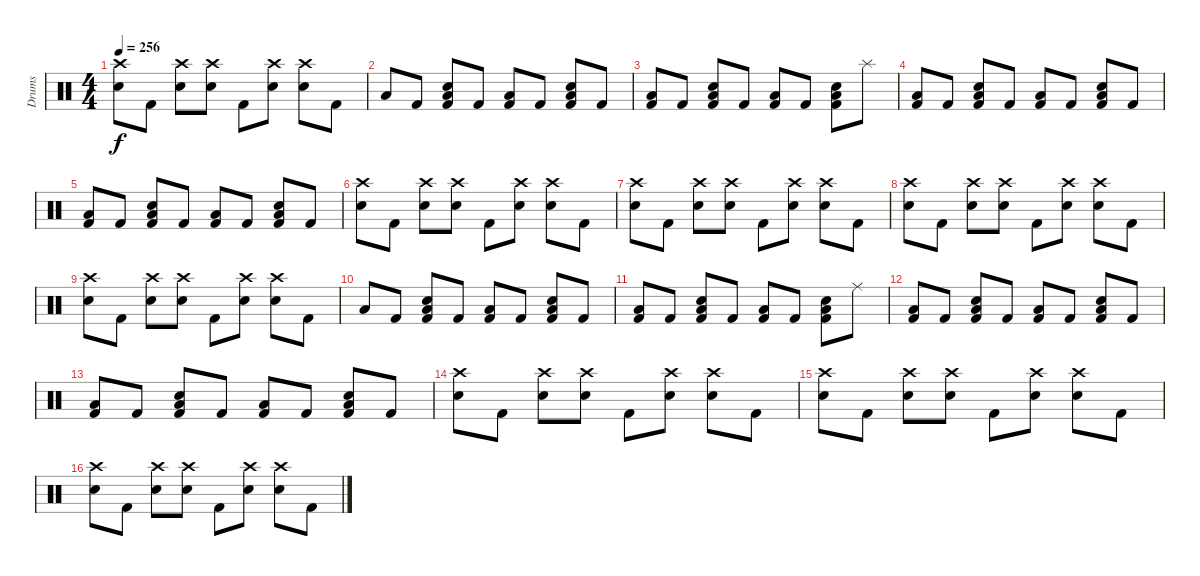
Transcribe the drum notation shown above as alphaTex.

\track ("Drums" "Drums") {instrument percussion}
\staff {score}
\articulation defaults
\ts (4 4)
\tempo 256
\clef neutral
\ks c
("Crash high (hit)" "Electric Snare (hit)").8{dy f} "Kick (hit) 2".8 ("Crash high (hit)" "Electric Snare (hit)").8 ("Crash high (hit)" "Electric Snare (hit)").8 "Kick (hit) 2".8 ("Crash high (hit)" "Electric Snare (hit)").8 ("Crash high (hit)" "Electric Snare (hit)").8 "Kick (hit) 2".8 |
"Low Tom (hit)".8 "Kick (hit) 2".8 ("Low Tom (hit)" "Electric Snare (hit)" "Kick (hit) 2").8 "Kick (hit) 2".8 ("Low Tom (hit)" "Kick (hit) 2").8 "Kick (hit) 2".8 ("Low Tom (hit)" "Electric Snare (hit)" "Kick (hit) 2").8 "Kick (hit) 2".8 |
("Low Tom (hit)" "Kick (hit) 2").8 "Kick (hit) 2".8 ("Low Tom (hit)" "Electric Snare (hit)" "Kick (hit) 2").8 "Kick (hit) 2".8 ("Low Tom (hit)" "Kick (hit) 2").8 "Kick (hit) 2".8 ("Low Tom (hit)" "Electric Snare (hit)" "Kick (hit) 2").8 "Splash (hit)".8 |
("Low Tom (hit)" "Kick (hit) 2").8 "Kick (hit) 2".8 ("Low Tom (hit)" "Electric Snare (hit)" "Kick (hit) 2").8 "Kick (hit) 2".8 ("Low Tom (hit)" "Kick (hit) 2").8 "Kick (hit) 2".8 ("Low Tom (hit)" "Electric Snare (hit)" "Kick (hit) 2").8 "Kick (hit) 2".8 |
("Low Tom (hit)" "Kick (hit) 2").8 "Kick (hit) 2".8 ("Low Tom (hit)" "Electric Snare (hit)" "Kick (hit) 2").8 "Kick (hit) 2".8 ("Low Tom (hit)" "Kick (hit) 2").8 "Kick (hit) 2".8 ("Low Tom (hit)" "Electric Snare (hit)" "Kick (hit) 2").8 "Kick (hit) 2".8 |
("Crash high (hit)" "Electric Snare (hit)").8 "Kick (hit) 2".8 ("Crash high (hit)" "Electric Snare (hit)").8 ("Crash high (hit)" "Electric Snare (hit)").8 "Kick (hit) 2".8 ("Crash high (hit)" "Electric Snare (hit)").8 ("Crash high (hit)" "Electric Snare (hit)").8 "Kick (hit) 2".8 |
("Crash high (hit)" "Electric Snare (hit)").8 "Kick (hit) 2".8 ("Crash high (hit)" "Electric Snare (hit)").8 ("Crash high (hit)" "Electric Snare (hit)").8 "Kick (hit) 2".8 ("Crash high (hit)" "Electric Snare (hit)").8 ("Crash high (hit)" "Electric Snare (hit)").8 "Kick (hit) 2".8 |
("Crash high (hit)" "Electric Snare (hit)").8 "Kick (hit) 2".8 ("Crash high (hit)" "Electric Snare (hit)").8 ("Crash high (hit)" "Electric Snare (hit)").8 "Kick (hit) 2".8 ("Crash high (hit)" "Electric Snare (hit)").8 ("Crash high (hit)" "Electric Snare (hit)").8 "Kick (hit) 2".8 |
("Crash high (hit)" "Electric Snare (hit)").8 "Kick (hit) 2".8 ("Crash high (hit)" "Electric Snare (hit)").8 ("Crash high (hit)" "Electric Snare (hit)").8 "Kick (hit) 2".8 ("Crash high (hit)" "Electric Snare (hit)").8 ("Crash high (hit)" "Electric Snare (hit)").8 "Kick (hit) 2".8 |
"Low Tom (hit)".8 "Kick (hit) 2".8 ("Low Tom (hit)" "Electric Snare (hit)" "Kick (hit) 2").8 "Kick (hit) 2".8 ("Low Tom (hit)" "Kick (hit) 2").8 "Kick (hit) 2".8 ("Low Tom (hit)" "Electric Snare (hit)" "Kick (hit) 2").8 "Kick (hit) 2".8 |
("Low Tom (hit)" "Kick (hit) 2").8 "Kick (hit) 2".8 ("Low Tom (hit)" "Electric Snare (hit)" "Kick (hit) 2").8 "Kick (hit) 2".8 ("Low Tom (hit)" "Kick (hit) 2").8 "Kick (hit) 2".8 ("Low Tom (hit)" "Electric Snare (hit)" "Kick (hit) 2").8 "Ride (middle)".8 |
("Low Tom (hit)" "Kick (hit) 2").8 "Kick (hit) 2".8 ("Low Tom (hit)" "Electric Snare (hit)" "Kick (hit) 2").8 "Kick (hit) 2".8 ("Low Tom (hit)" "Kick (hit) 2").8 "Kick (hit) 2".8 ("Low Tom (hit)" "Electric Snare (hit)" "Kick (hit) 2").8 "Kick (hit) 2".8 |
("Low Tom (hit)" "Kick (hit) 2").8 "Kick (hit) 2".8 ("Low Tom (hit)" "Electric Snare (hit)" "Kick (hit) 2").8 "Kick (hit) 2".8 ("Low Tom (hit)" "Kick (hit) 2").8 "Kick (hit) 2".8 ("Low Tom (hit)" "Electric Snare (hit)" "Kick (hit) 2").8 "Kick (hit) 2".8 |
("Crash high (hit)" "Electric Snare (hit)").8 "Kick (hit) 2".8 ("Crash high (hit)" "Electric Snare (hit)").8 ("Crash high (hit)" "Electric Snare (hit)").8 "Kick (hit) 2".8 ("Crash high (hit)" "Electric Snare (hit)").8 ("Crash high (hit)" "Electric Snare (hit)").8 "Kick (hit) 2".8 |
("Crash high (hit)" "Electric Snare (hit)").8 "Kick (hit) 2".8 ("Crash high (hit)" "Electric Snare (hit)").8 ("Crash high (hit)" "Electric Snare (hit)").8 "Kick (hit) 2".8 ("Crash high (hit)" "Electric Snare (hit)").8 ("Crash high (hit)" "Electric Snare (hit)").8 "Kick (hit) 2".8 |
("Crash high (hit)" "Electric Snare (hit)").8 "Kick (hit) 2".8 ("Crash high (hit)" "Electric Snare (hit)").8 ("Crash high (hit)" "Electric Snare (hit)").8 "Kick (hit) 2".8 ("Crash high (hit)" "Electric Snare (hit)").8 ("Crash high (hit)" "Electric Snare (hit)").8 "Kick (hit) 2".8
